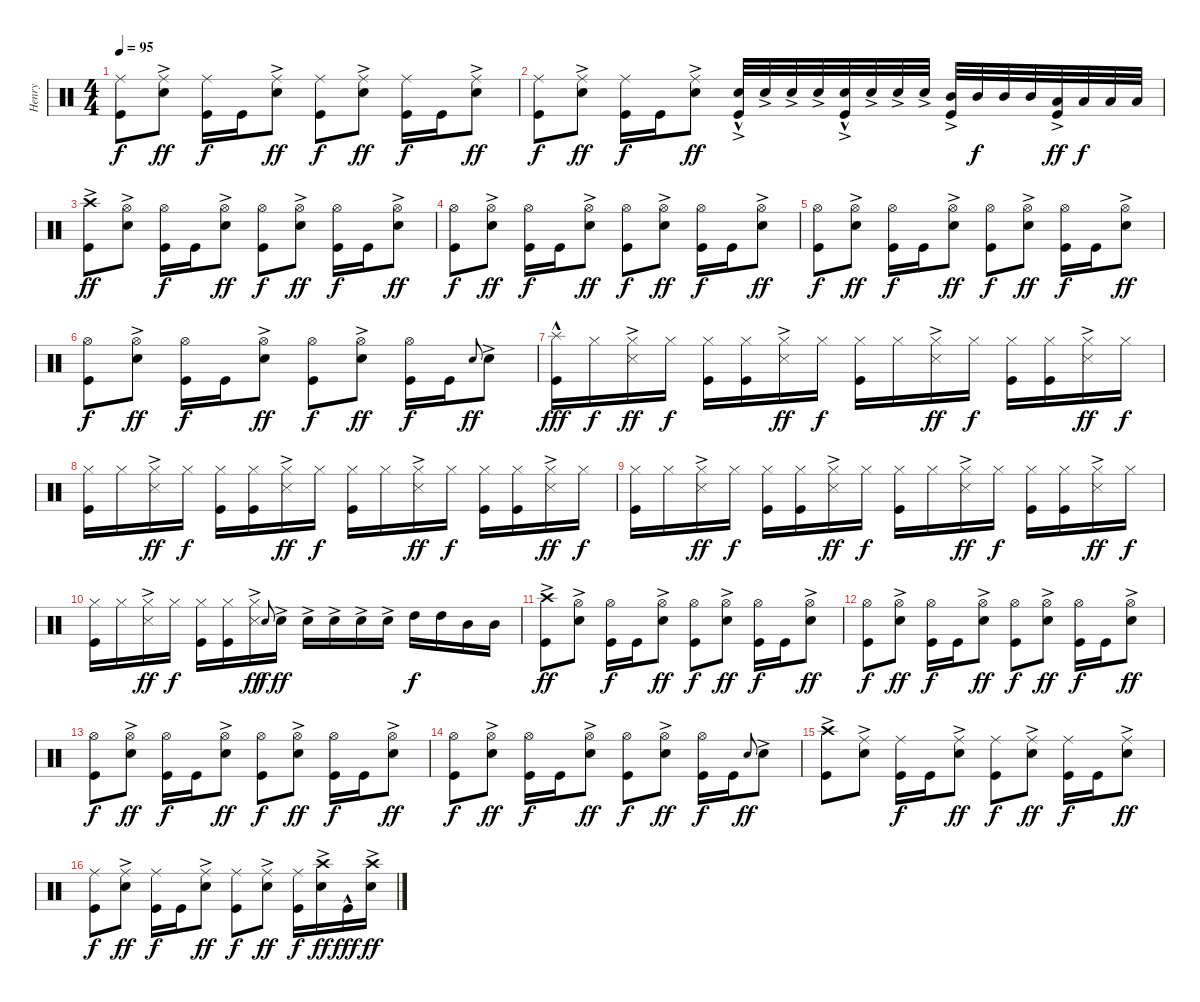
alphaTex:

\track ("Henry" "Henry") {instrument percussion}
\staff {score}
\articulation defaults
\ts (4 4)
\tempo 95
\clef neutral
\ks c
("Ride (middle)" "Kick (hit)").8{dy f} ("Ride (middle)" "Snare (hit) 2"{ac}).8{dy ff} ("Ride (middle)" "Kick (hit)").16{dy f} "Kick (hit)".16 ("Ride (middle)" "Snare (hit) 2"{ac}).8{dy ff} ("Ride (middle)" "Kick (hit)").8{dy f} ("Ride (middle)" "Snare (hit) 2"{ac}).8{dy ff} ("Ride (middle)" "Kick (hit)").16{dy f} "Kick (hit)".16 ("Ride (middle)" "Snare (hit) 2"{ac}).8{dy ff} |
("Ride (middle)" "Kick (hit)").8{dy f} ("Ride (middle)" "Snare (hit) 2"{ac}).8{dy ff} ("Ride (middle)" "Kick (hit)").16{dy f} "Kick (hit)".16 ("Ride (middle)" "Snare (hit) 2"{ac}).8{dy ff} ("Snare (hit) 2"{hac} "Kick (hit)"{ac}).32 "Snare (hit) 2"{ac}.32 "Snare (hit) 2"{ac}.32 "Snare (hit) 2"{ac}.32 ("Snare (hit) 2"{hac} "Kick (hit)"{ac}).32 "Snare (hit) 2"{ac}.32 "Snare (hit) 2"{ac}.32 "Snare (hit) 2"{ac}.32 ("Mid Tom (hit)"{ac} "Kick (hit)"{ac}).32 "Mid Tom (hit)".32{dy f} "Mid Tom (hit)".32 "Mid Tom (hit)".32 ("Low Tom (hit)"{ac} "Kick (hit)"{ac}).32{dy ff} "Low Tom (hit)".32{dy f} "Low Tom (hit)".32 "Low Tom (hit)".32 |
("Crash high (hit)"{ac} "Kick (hit)"{ac}).8{dy ff} ("Hi-Hat (open)" "Snare (hit) 2"{ac}).8 ("Hi-Hat (open)" "Kick (hit)").16{dy f} "Kick (hit)".16 ("Hi-Hat (open)" "Snare (hit) 2"{ac}).8{dy ff} ("Hi-Hat (open)" "Kick (hit)").8{dy f} ("Hi-Hat (open)" "Snare (hit) 2"{ac}).8{dy ff} ("Hi-Hat (open)" "Kick (hit)").16{dy f} "Kick (hit)".16 ("Hi-Hat (open)" "Snare (hit) 2"{ac}).8{dy ff} |
("Hi-Hat (open)" "Kick (hit)").8{dy f} ("Hi-Hat (open)" "Snare (hit) 2"{ac}).8{dy ff} ("Hi-Hat (open)" "Kick (hit)").16{dy f} "Kick (hit)".16 ("Hi-Hat (open)" "Snare (hit) 2"{ac}).8{dy ff} ("Hi-Hat (open)" "Kick (hit)").8{dy f} ("Hi-Hat (open)" "Snare (hit) 2"{ac}).8{dy ff} ("Hi-Hat (open)" "Kick (hit)").16{dy f} "Kick (hit)".16 ("Hi-Hat (open)" "Snare (hit) 2"{ac}).8{dy ff} |
("Hi-Hat (open)" "Kick (hit)").8{dy f} ("Hi-Hat (open)" "Snare (hit) 2"{ac}).8{dy ff} ("Hi-Hat (open)" "Kick (hit)").16{dy f} "Kick (hit)".16 ("Hi-Hat (open)" "Snare (hit) 2"{ac}).8{dy ff} ("Hi-Hat (open)" "Kick (hit)").8{dy f} ("Hi-Hat (open)" "Snare (hit) 2"{ac}).8{dy ff} ("Hi-Hat (open)" "Kick (hit)").16{dy f} "Kick (hit)".16 ("Hi-Hat (open)" "Snare (hit) 2"{ac}).8{dy ff} |
("Hi-Hat (open)" "Kick (hit)").8{dy f} ("Hi-Hat (open)" "Snare (hit) 2"{ac}).8{dy ff} ("Hi-Hat (open)" "Kick (hit)").16{dy f} "Kick (hit)".16 ("Hi-Hat (open)" "Snare (hit) 2"{ac}).8{dy ff} ("Hi-Hat (open)" "Kick (hit)").8{dy f} ("Hi-Hat (open)" "Snare (hit) 2"{ac}).8{dy ff} ("Hi-Hat (open)" "Kick (hit)").16{dy f} "Kick (hit)".16 "Snare (hit) 2".8{gr onbeat dy ff} "Snare (hit) 2"{ac}.8 |
("Splash (hit)"{hac} "Kick (hit)").16{dy fff} "Hi-Hat (closed)".16{dy f} ("Hi-Hat (closed)" "Snare (side stick) 3"{ac}).16{dy ff} "Hi-Hat (closed)".16{dy f} ("Hi-Hat (closed)" "Kick (hit)").16 ("Hi-Hat (closed)" "Kick (hit)").16 ("Hi-Hat (closed)" "Snare (side stick) 3"{ac}).16{dy ff} "Hi-Hat (closed)".16{dy f} ("Hi-Hat (closed)" "Kick (hit)").16 "Hi-Hat (closed)".16 ("Hi-Hat (closed)" "Snare (side stick) 3"{ac}).16{dy ff} "Hi-Hat (closed)".16{dy f} ("Hi-Hat (closed)" "Kick (hit)").16 ("Hi-Hat (closed)" "Kick (hit)").16 ("Hi-Hat (closed)" "Snare (side stick) 3"{ac}).16{dy ff} "Hi-Hat (closed)".16{dy f} |
("Hi-Hat (closed)" "Kick (hit)").16 "Hi-Hat (closed)".16 ("Hi-Hat (closed)" "Snare (side stick) 3"{ac}).16{dy ff} "Hi-Hat (closed)".16{dy f} ("Hi-Hat (closed)" "Kick (hit)").16 ("Hi-Hat (closed)" "Kick (hit)").16 ("Hi-Hat (closed)" "Snare (side stick) 3"{ac}).16{dy ff} "Hi-Hat (closed)".16{dy f} ("Hi-Hat (closed)" "Kick (hit)").16 "Hi-Hat (closed)".16 ("Hi-Hat (closed)" "Snare (side stick) 3"{ac}).16{dy ff} "Hi-Hat (closed)".16{dy f} ("Hi-Hat (closed)" "Kick (hit)").16 ("Hi-Hat (closed)" "Kick (hit)").16 ("Hi-Hat (closed)" "Snare (side stick) 3"{ac}).16{dy ff} "Hi-Hat (closed)".16{dy f} |
("Hi-Hat (closed)" "Kick (hit)").16 "Hi-Hat (closed)".16 ("Hi-Hat (closed)" "Snare (side stick) 3"{ac}).16{dy ff} "Hi-Hat (closed)".16{dy f} ("Hi-Hat (closed)" "Kick (hit)").16 ("Hi-Hat (closed)" "Kick (hit)").16 ("Hi-Hat (closed)" "Snare (side stick) 3"{ac}).16{dy ff} "Hi-Hat (closed)".16{dy f} ("Hi-Hat (closed)" "Kick (hit)").16 "Hi-Hat (closed)".16 ("Hi-Hat (closed)" "Snare (side stick) 3"{ac}).16{dy ff} "Hi-Hat (closed)".16{dy f} ("Hi-Hat (closed)" "Kick (hit)").16 ("Hi-Hat (closed)" "Kick (hit)").16 ("Hi-Hat (closed)" "Snare (side stick) 3"{ac}).16{dy ff} "Hi-Hat (closed)".16{dy f} |
("Hi-Hat (closed)" "Kick (hit)").16 "Hi-Hat (closed)".16 ("Hi-Hat (closed)" "Snare (side stick) 3"{ac}).16{dy ff} "Hi-Hat (closed)".16{dy f} ("Hi-Hat (closed)" "Kick (hit)").16 ("Hi-Hat (closed)" "Kick (hit)").16 ("Hi-Hat (closed)" "Snare (side stick) 3"{ac}).16{dy ff} "Snare (hit) 2".8{gr onbeat dy f} "Snare (hit) 2"{ac}.16{dy ff} "Snare (hit) 2"{ac}.16 "Snare (hit) 2"{ac}.16 "Snare (hit) 2"{ac}.16 "Snare (hit) 2"{ac}.16 "High Tom (hit)".16{dy f} "High Tom (hit)".16 "Mid Tom (hit)".16 "Mid Tom (hit)".16 |
("Crash high (hit)"{ac} "Kick (hit)"{ac}).8{dy ff} ("Hi-Hat (open)" "Snare (hit) 2"{ac}).8 ("Hi-Hat (open)" "Kick (hit)").16{dy f} "Kick (hit)".16 ("Hi-Hat (open)" "Snare (hit) 2"{ac}).8{dy ff} ("Hi-Hat (open)" "Kick (hit)").8{dy f} ("Hi-Hat (open)" "Snare (hit) 2"{ac}).8{dy ff} ("Hi-Hat (open)" "Kick (hit)").16{dy f} "Kick (hit)".16 ("Hi-Hat (open)" "Snare (hit) 2"{ac}).8{dy ff} |
("Hi-Hat (open)" "Kick (hit)").8{dy f} ("Hi-Hat (open)" "Snare (hit) 2"{ac}).8{dy ff} ("Hi-Hat (open)" "Kick (hit)").16{dy f} "Kick (hit)".16 ("Hi-Hat (open)" "Snare (hit) 2"{ac}).8{dy ff} ("Hi-Hat (open)" "Kick (hit)").8{dy f} ("Hi-Hat (open)" "Snare (hit) 2"{ac}).8{dy ff} ("Hi-Hat (open)" "Kick (hit)").16{dy f} "Kick (hit)".16 ("Hi-Hat (open)" "Snare (hit) 2"{ac}).8{dy ff} |
("Hi-Hat (open)" "Kick (hit)").8{dy f} ("Hi-Hat (open)" "Snare (hit) 2"{ac}).8{dy ff} ("Hi-Hat (open)" "Kick (hit)").16{dy f} "Kick (hit)".16 ("Hi-Hat (open)" "Snare (hit) 2"{ac}).8{dy ff} ("Hi-Hat (open)" "Kick (hit)").8{dy f} ("Hi-Hat (open)" "Snare (hit) 2"{ac}).8{dy ff} ("Hi-Hat (open)" "Kick (hit)").16{dy f} "Kick (hit)".16 ("Hi-Hat (open)" "Snare (hit) 2"{ac}).8{dy ff} |
("Hi-Hat (open)" "Kick (hit)").8{dy f} ("Hi-Hat (open)" "Snare (hit) 2"{ac}).8{dy ff} ("Hi-Hat (open)" "Kick (hit)").16{dy f} "Kick (hit)".16 ("Hi-Hat (open)" "Snare (hit) 2"{ac}).8{dy ff} ("Hi-Hat (open)" "Kick (hit)").8{dy f} ("Hi-Hat (open)" "Snare (hit) 2"{ac}).8{dy ff} ("Hi-Hat (open)" "Kick (hit)").16{dy f} "Kick (hit)".16 "Snare (hit) 2".8{gr onbeat dy ff} "Snare (hit) 2"{ac}.8 |
("Crash high (hit)"{ac} "Kick (hit)").8 ("Ride (middle)" "Snare (hit) 2"{ac}).8 ("Ride (middle)" "Kick (hit)").16{dy f} "Kick (hit)".16 ("Ride (middle)" "Snare (hit) 2"{ac}).8{dy ff} ("Ride (middle)" "Kick (hit)").8{dy f} ("Ride (middle)" "Snare (hit) 2"{ac}).8{dy ff} ("Ride (middle)" "Kick (hit)").16{dy f} "Kick (hit)".16 ("Ride (middle)" "Snare (hit) 2"{ac}).8{dy ff} |
("Ride (middle)" "Kick (hit)").8{dy f} ("Ride (middle)" "Snare (hit) 2"{ac}).8{dy ff} ("Ride (middle)" "Kick (hit)").16{dy f} "Kick (hit)".16 ("Ride (middle)" "Snare (hit) 2"{ac}).8{dy ff} ("Ride (middle)" "Kick (hit)").8{dy f} ("Ride (middle)" "Snare (hit) 2"{ac}).8{dy ff} ("Ride (middle)" "Kick (hit)").16{dy f} ("Crash high (hit)"{ac} "Snare (hit) 2"{ac}).16{dy ff} "Kick (hit)"{hac}.16{dy fff} ("Crash high (hit)"{ac} "Snare (hit) 2"{ac}).16{dy ff}
